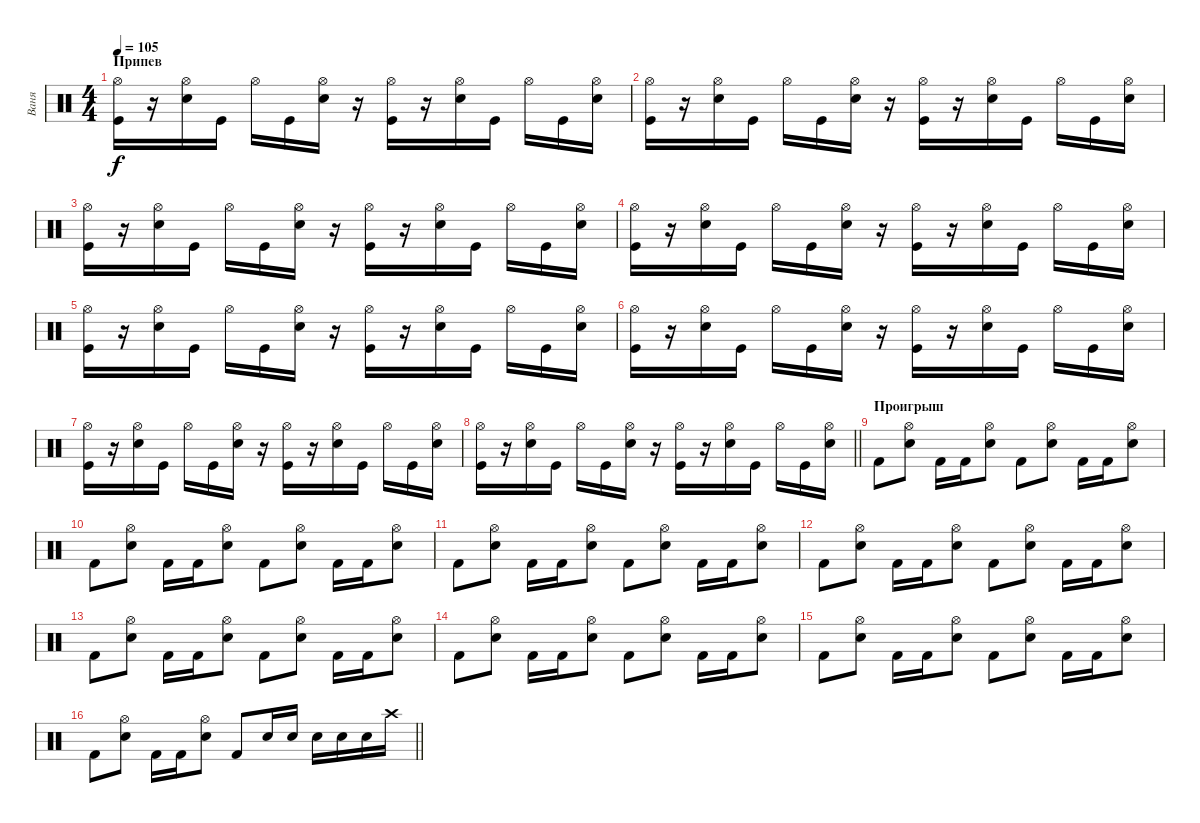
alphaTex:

\track ("Ваня" "Ваня") {instrument percussion}
\staff {score}
\articulation defaults
\ts (4 4)
\section ("" "Припев")
\tempo 105
\clef neutral
\ks c
("Hi-Hat (open)" "Kick (hit)").16{dy f} r.16 ("Hi-Hat (open)" "Snare (hit) 2").16 "Kick (hit)".16 "Hi-Hat (open)".16 "Kick (hit)".16 ("Hi-Hat (open)" "Snare (hit) 2").16 r.16 ("Hi-Hat (open)" "Kick (hit)").16 r.16 ("Hi-Hat (open)" "Snare (hit) 2").16 "Kick (hit)".16 "Hi-Hat (open)".16 "Kick (hit)".16 ("Hi-Hat (open)" "Snare (hit) 2").16 |
("Hi-Hat (open)" "Kick (hit)").16 r.16 ("Hi-Hat (open)" "Snare (hit) 2").16 "Kick (hit)".16 "Hi-Hat (open)".16 "Kick (hit)".16 ("Hi-Hat (open)" "Snare (hit) 2").16 r.16 ("Hi-Hat (open)" "Kick (hit)").16 r.16 ("Hi-Hat (open)" "Snare (hit) 2").16 "Kick (hit)".16 "Hi-Hat (open)".16 "Kick (hit)".16 ("Hi-Hat (open)" "Snare (hit) 2").16 |
("Hi-Hat (open)" "Kick (hit)").16 r.16 ("Hi-Hat (open)" "Snare (hit) 2").16 "Kick (hit)".16 "Hi-Hat (open)".16 "Kick (hit)".16 ("Hi-Hat (open)" "Snare (hit) 2").16 r.16 ("Hi-Hat (open)" "Kick (hit)").16 r.16 ("Hi-Hat (open)" "Snare (hit) 2").16 "Kick (hit)".16 "Hi-Hat (open)".16 "Kick (hit)".16 ("Hi-Hat (open)" "Snare (hit) 2").16 |
("Hi-Hat (open)" "Kick (hit)").16 r.16 ("Hi-Hat (open)" "Snare (hit) 2").16 "Kick (hit)".16 "Hi-Hat (open)".16 "Kick (hit)".16 ("Hi-Hat (open)" "Snare (hit) 2").16 r.16 ("Hi-Hat (open)" "Kick (hit)").16 r.16 ("Hi-Hat (open)" "Snare (hit) 2").16 "Kick (hit)".16 "Hi-Hat (open)".16 "Kick (hit)".16 ("Hi-Hat (open)" "Snare (hit) 2").16 |
("Hi-Hat (open)" "Kick (hit)").16 r.16 ("Hi-Hat (open)" "Snare (hit) 2").16 "Kick (hit)".16 "Hi-Hat (open)".16 "Kick (hit)".16 ("Hi-Hat (open)" "Snare (hit) 2").16 r.16 ("Hi-Hat (open)" "Kick (hit)").16 r.16 ("Hi-Hat (open)" "Snare (hit) 2").16 "Kick (hit)".16 "Hi-Hat (open)".16 "Kick (hit)".16 ("Hi-Hat (open)" "Snare (hit) 2").16 |
("Hi-Hat (open)" "Kick (hit)").16 r.16 ("Hi-Hat (open)" "Snare (hit) 2").16 "Kick (hit)".16 "Hi-Hat (open)".16 "Kick (hit)".16 ("Hi-Hat (open)" "Snare (hit) 2").16 r.16 ("Hi-Hat (open)" "Kick (hit)").16 r.16 ("Hi-Hat (open)" "Snare (hit) 2").16 "Kick (hit)".16 "Hi-Hat (open)".16 "Kick (hit)".16 ("Hi-Hat (open)" "Snare (hit) 2").16 |
("Hi-Hat (open)" "Kick (hit)").16 r.16 ("Hi-Hat (open)" "Snare (hit) 2").16 "Kick (hit)".16 "Hi-Hat (open)".16 "Kick (hit)".16 ("Hi-Hat (open)" "Snare (hit) 2").16 r.16 ("Hi-Hat (open)" "Kick (hit)").16 r.16 ("Hi-Hat (open)" "Snare (hit) 2").16 "Kick (hit)".16 "Hi-Hat (open)".16 "Kick (hit)".16 ("Hi-Hat (open)" "Snare (hit) 2").16 |
\barLineRight lightlight
("Hi-Hat (open)" "Kick (hit)").16 r.16 ("Hi-Hat (open)" "Snare (hit) 2").16 "Kick (hit)".16 "Hi-Hat (open)".16 "Kick (hit)".16 ("Hi-Hat (open)" "Snare (hit) 2").16 r.16 ("Hi-Hat (open)" "Kick (hit)").16 r.16 ("Hi-Hat (open)" "Snare (hit) 2").16 "Kick (hit)".16 "Hi-Hat (open)".16 "Kick (hit)".16 ("Hi-Hat (open)" "Snare (hit) 2").16 |
\section ("" "Проигрыш")
"Kick (hit) 2".8 ("Hi-Hat (open)" "Snare (hit) 2").8 "Kick (hit) 2".16 "Kick (hit) 2".16 ("Hi-Hat (open)" "Snare (hit) 2").8 "Kick (hit) 2".8 ("Hi-Hat (open)" "Snare (hit) 2").8 "Kick (hit) 2".16 "Kick (hit) 2".16 ("Hi-Hat (open)" "Snare (hit) 2").8 |
"Kick (hit) 2".8 ("Hi-Hat (open)" "Snare (hit) 2").8 "Kick (hit) 2".16 "Kick (hit) 2".16 ("Hi-Hat (open)" "Snare (hit) 2").8 "Kick (hit) 2".8 ("Hi-Hat (open)" "Snare (hit) 2").8 "Kick (hit) 2".16 "Kick (hit) 2".16 ("Hi-Hat (open)" "Snare (hit) 2").8 |
"Kick (hit) 2".8 ("Hi-Hat (open)" "Snare (hit) 2").8 "Kick (hit) 2".16 "Kick (hit) 2".16 ("Hi-Hat (open)" "Snare (hit) 2").8 "Kick (hit) 2".8 ("Hi-Hat (open)" "Snare (hit) 2").8 "Kick (hit) 2".16 "Kick (hit) 2".16 ("Hi-Hat (open)" "Snare (hit) 2").8 |
"Kick (hit) 2".8 ("Hi-Hat (open)" "Snare (hit) 2").8 "Kick (hit) 2".16 "Kick (hit) 2".16 ("Hi-Hat (open)" "Snare (hit) 2").8 "Kick (hit) 2".8 ("Hi-Hat (open)" "Snare (hit) 2").8 "Kick (hit) 2".16 "Kick (hit) 2".16 ("Hi-Hat (open)" "Snare (hit) 2").8 |
"Kick (hit) 2".8 ("Hi-Hat (open)" "Snare (hit) 2").8 "Kick (hit) 2".16 "Kick (hit) 2".16 ("Hi-Hat (open)" "Snare (hit) 2").8 "Kick (hit) 2".8 ("Hi-Hat (open)" "Snare (hit) 2").8 "Kick (hit) 2".16 "Kick (hit) 2".16 ("Hi-Hat (open)" "Snare (hit) 2").8 |
"Kick (hit) 2".8 ("Hi-Hat (open)" "Snare (hit) 2").8 "Kick (hit) 2".16 "Kick (hit) 2".16 ("Hi-Hat (open)" "Snare (hit) 2").8 "Kick (hit) 2".8 ("Hi-Hat (open)" "Snare (hit) 2").8 "Kick (hit) 2".16 "Kick (hit) 2".16 ("Hi-Hat (open)" "Snare (hit) 2").8 |
"Kick (hit) 2".8 ("Hi-Hat (open)" "Snare (hit) 2").8 "Kick (hit) 2".16 "Kick (hit) 2".16 ("Hi-Hat (open)" "Snare (hit) 2").8 "Kick (hit) 2".8 ("Hi-Hat (open)" "Snare (hit) 2").8 "Kick (hit) 2".16 "Kick (hit) 2".16 ("Hi-Hat (open)" "Snare (hit) 2").8 |
\barLineRight lightlight "Kick (hit) 2".8
("Hi-Hat (open)" "Snare (hit) 2").8 "Kick (hit) 2".16 "Kick (hit) 2".16 ("Hi-Hat (open)" "Snare (hit) 2").8 "Kick (hit) 2".8 "Snare (hit) 2".16 "Snare (hit) 2".16 "Snare (hit) 2".16 "Snare (hit) 2".16 "Snare (hit) 2".16 "Crash high (hit)".16
